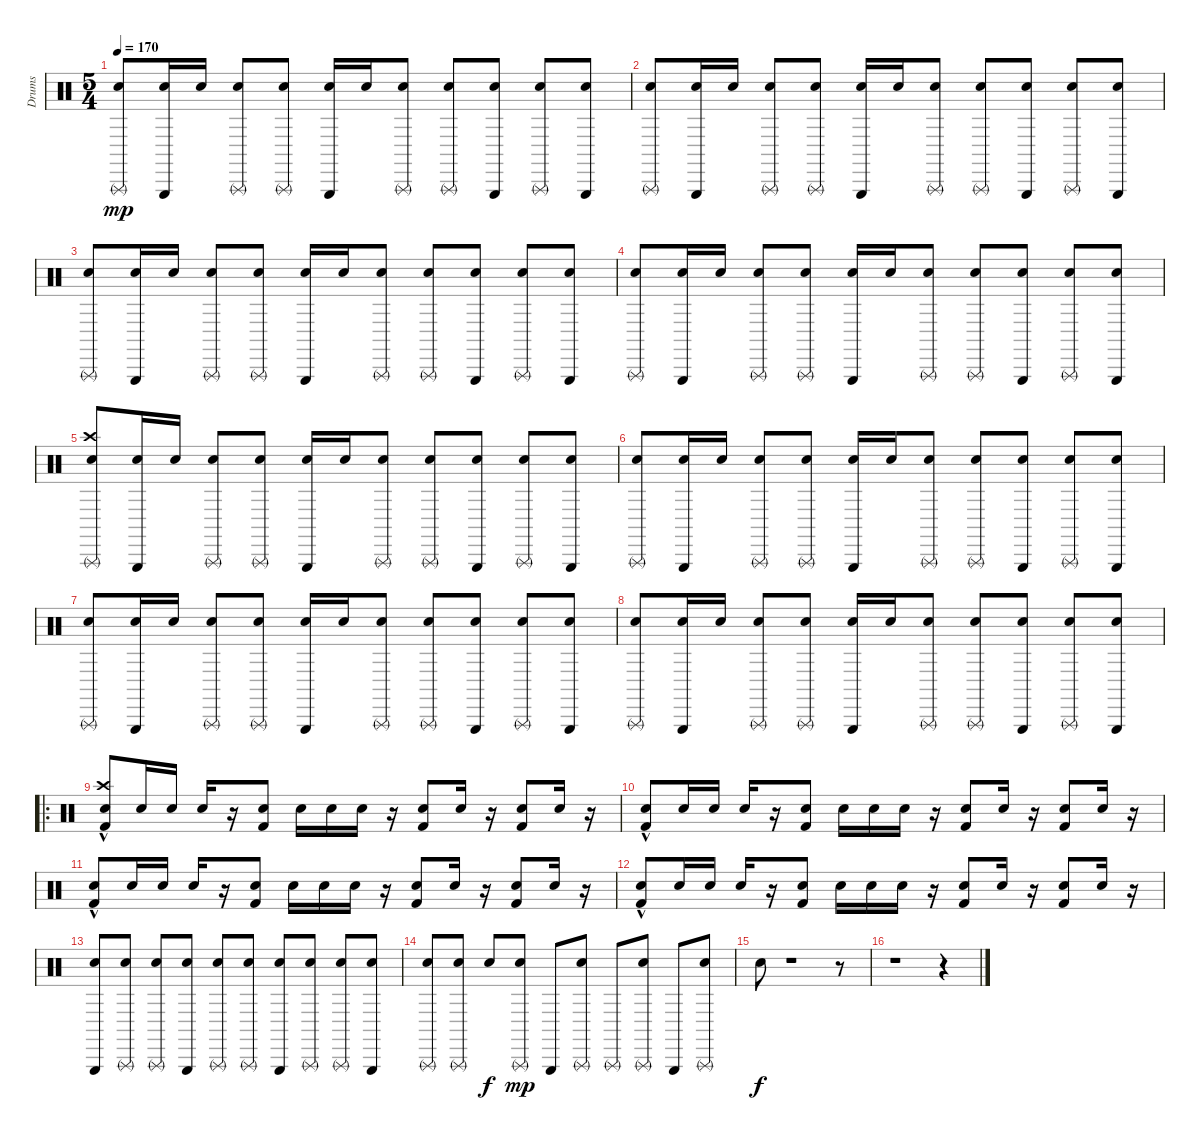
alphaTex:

\track ("Drums" "Drums") {instrument percussion}
\staff {score}
\articulation defaults
\ts (5 4)
\tempo 170
\clef neutral
\ks c
("Metronome (bell)" "Triangle (rnute)").8{dy mp} ("Triangle (hit)" "Metronome (bell)").16 "Metronome (bell)".16 ("Triangle (rnute)" "Metronome (bell)").8 ("Metronome (bell)" "Triangle (rnute)").8 ("Triangle (hit)" "Metronome (bell)").16 "Metronome (bell)".16 ("Triangle (rnute)" "Metronome (bell)").8 ("Metronome (bell)" "Triangle (rnute)").8 ("Triangle (hit)" "Metronome (bell)").8 ("Metronome (bell)" "Triangle (rnute)").8 ("Triangle (hit)" "Metronome (bell)").8 |
("Metronome (bell)" "Triangle (rnute)").8 ("Triangle (hit)" "Metronome (bell)").16 "Metronome (bell)".16 ("Triangle (rnute)" "Metronome (bell)").8 ("Metronome (bell)" "Triangle (rnute)").8 ("Triangle (hit)" "Metronome (bell)").16 "Metronome (bell)".16 ("Triangle (rnute)" "Metronome (bell)").8 ("Metronome (bell)" "Triangle (rnute)").8 ("Triangle (hit)" "Metronome (bell)").8 ("Metronome (bell)" "Triangle (rnute)").8 ("Triangle (hit)" "Metronome (bell)").8 |
("Metronome (bell)" "Triangle (rnute)").8 ("Triangle (hit)" "Metronome (bell)").16 "Metronome (bell)".16 ("Triangle (rnute)" "Metronome (bell)").8 ("Metronome (bell)" "Triangle (rnute)").8 ("Triangle (hit)" "Metronome (bell)").16 "Metronome (bell)".16 ("Triangle (rnute)" "Metronome (bell)").8 ("Metronome (bell)" "Triangle (rnute)").8 ("Triangle (hit)" "Metronome (bell)").8 ("Metronome (bell)" "Triangle (rnute)").8 ("Triangle (hit)" "Metronome (bell)").8 |
("Metronome (bell)" "Triangle (rnute)").8 ("Triangle (hit)" "Metronome (bell)").16 "Metronome (bell)".16 ("Triangle (rnute)" "Metronome (bell)").8 ("Metronome (bell)" "Triangle (rnute)").8 ("Triangle (hit)" "Metronome (bell)").16 "Metronome (bell)".16 ("Triangle (rnute)" "Metronome (bell)").8 ("Metronome (bell)" "Triangle (rnute)").8 ("Triangle (hit)" "Metronome (bell)").8 ("Metronome (bell)" "Triangle (rnute)").8 ("Triangle (hit)" "Metronome (bell)").8 |
("Triangle (rnute)" "Metronome (bell)" "Crash high (hit)").8 ("Triangle (hit)" "Metronome (bell)").16 "Metronome (bell)".16 ("Triangle (rnute)" "Metronome (bell)").8 ("Metronome (bell)" "Triangle (rnute)").8 ("Triangle (hit)" "Metronome (bell)").16 "Metronome (bell)".16 ("Triangle (rnute)" "Metronome (bell)").8 ("Metronome (bell)" "Triangle (rnute)").8 ("Triangle (hit)" "Metronome (bell)").8 ("Metronome (bell)" "Triangle (rnute)").8 ("Triangle (hit)" "Metronome (bell)").8 |
("Metronome (bell)" "Triangle (rnute)").8 ("Triangle (hit)" "Metronome (bell)").16 "Metronome (bell)".16 ("Triangle (rnute)" "Metronome (bell)").8 ("Metronome (bell)" "Triangle (rnute)").8 ("Triangle (hit)" "Metronome (bell)").16 "Metronome (bell)".16 ("Triangle (rnute)" "Metronome (bell)").8 ("Metronome (bell)" "Triangle (rnute)").8 ("Triangle (hit)" "Metronome (bell)").8 ("Metronome (bell)" "Triangle (rnute)").8 ("Triangle (hit)" "Metronome (bell)").8 |
("Metronome (bell)" "Triangle (rnute)").8 ("Triangle (hit)" "Metronome (bell)").16 "Metronome (bell)".16 ("Triangle (rnute)" "Metronome (bell)").8 ("Metronome (bell)" "Triangle (rnute)").8 ("Triangle (hit)" "Metronome (bell)").16 "Metronome (bell)".16 ("Triangle (rnute)" "Metronome (bell)").8 ("Metronome (bell)" "Triangle (rnute)").8 ("Triangle (hit)" "Metronome (bell)").8 ("Metronome (bell)" "Triangle (rnute)").8 ("Triangle (hit)" "Metronome (bell)").8 |
("Metronome (bell)" "Triangle (rnute)").8 ("Triangle (hit)" "Metronome (bell)").16 "Metronome (bell)".16 ("Triangle (rnute)" "Metronome (bell)").8 ("Metronome (bell)" "Triangle (rnute)").8 ("Triangle (hit)" "Metronome (bell)").16 "Metronome (bell)".16 ("Triangle (rnute)" "Metronome (bell)").8 ("Metronome (bell)" "Triangle (rnute)").8 ("Metronome (bell)" "Triangle (hit)").8 ("Metronome (bell)" "Triangle (rnute)").8 ("Triangle (hit)" "Metronome (bell)").8 |
\ro
("Metronome (bell)" "Kick (hit) 2"{hac} "Crash high (hit)").8 "Metronome (bell)".16 "Metronome (bell)".16 "Metronome (bell)".16 r.16 ("Metronome (bell)" "Kick (hit) 2").8 "Metronome (bell)".16 "Metronome (bell)".16 "Metronome (bell)".16 r.16 ("Metronome (bell)" "Kick (hit) 2").8 "Metronome (bell)".16 r.16 ("Metronome (bell)" "Kick (hit) 2").8 "Metronome (bell)".16 r.16 |
("Kick (hit) 2"{hac} "Metronome (bell)").8 "Metronome (bell)".16 "Metronome (bell)".16 "Metronome (bell)".16 r.16 ("Metronome (bell)" "Kick (hit) 2").8 "Metronome (bell)".16 "Metronome (bell)".16 "Metronome (bell)".16 r.16 ("Metronome (bell)" "Kick (hit) 2").8 "Metronome (bell)".16 r.16 ("Metronome (bell)" "Kick (hit) 2").8 "Metronome (bell)".16 r.16 |
("Kick (hit) 2"{hac} "Metronome (bell)").8 "Metronome (bell)".16 "Metronome (bell)".16 "Metronome (bell)".16 r.16 ("Metronome (bell)" "Kick (hit) 2").8 "Metronome (bell)".16 "Metronome (bell)".16 "Metronome (bell)".16 r.16 ("Metronome (bell)" "Kick (hit) 2").8 "Metronome (bell)".16 r.16 ("Metronome (bell)" "Kick (hit) 2").8 "Metronome (bell)".16 r.16 |
("Kick (hit) 2"{hac} "Metronome (bell)").8 "Metronome (bell)".16 "Metronome (bell)".16 "Metronome (bell)".16 r.16 ("Metronome (bell)" "Kick (hit) 2").8 "Metronome (bell)".16 "Metronome (bell)".16 "Metronome (bell)".16 r.16 ("Kick (hit) 2" "Metronome (bell)").8 "Metronome (bell)".16 r.16 ("Metronome (bell)" "Kick (hit) 2").8 "Metronome (bell)".16 r.16 |
("Electric Snare (hit)" "Triangle (hit)").8 ("Electric Snare (hit)" "Triangle (rnute)").8 ("Electric Snare (hit)" "Triangle (rnute)").8 ("Electric Snare (hit)" "Triangle (hit)").8 ("Electric Snare (hit)" "Triangle (rnute)").8 ("Electric Snare (hit)" "Triangle (rnute)").8 ("Electric Snare (hit)" "Triangle (hit)").8 ("Electric Snare (hit)" "Triangle (rnute)").8 ("Electric Snare (hit)" "Triangle (rnute)").8 ("Electric Snare (hit)" "Triangle (hit)").8 |
("Electric Snare (hit)" "Triangle (rnute)").8 ("Electric Snare (hit)" "Triangle (rnute)").8 "Electric Snare (hit)".8{dy f} ("Electric Snare (hit)" "Triangle (rnute)").8{dy mp} "Triangle (hit)".8 ("Electric Snare (hit)" "Triangle (rnute)").8 "Triangle (rnute)".8 ("Electric Snare (hit)" "Triangle (rnute)").8 "Triangle (hit)".8 ("Electric Snare (hit)" "Triangle (rnute)").8 |
"Electric Snare (hit)".8{dy f} r.1 r.8 |
r.1 r.4
